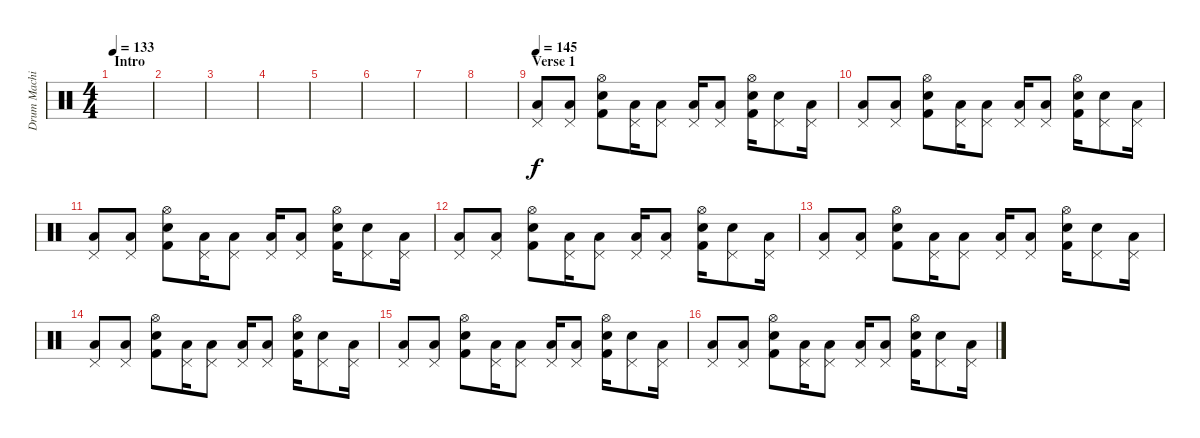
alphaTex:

\track ("Drum Machine" "Drum Machi") {instrument percussion}
\staff {score}
\articulation defaults
\ts (4 4)
\section ("" "Intro")
\tempo 133
\clef neutral
\ks c
|
|
|
|
|
|
|
|
\section ("" "Verse 1")
\tempo 145
("Pedal Hi-Hat (hit)" "Low Tom (hit)").8 ("Pedal Hi-Hat (hit)" "Low Tom (hit)").8 ("Hi-Hat (open)" "Snare (hit) 2" "Kick (hit) 2").8 ("Pedal Hi-Hat (hit)" "Low Tom (hit)").16 ("Pedal Hi-Hat (hit)" "Low Tom (hit)").8 ("Pedal Hi-Hat (hit)" "Low Tom (hit)").16 ("Pedal Hi-Hat (hit)" "Low Tom (hit)").8 ("Hi-Hat (open)" "Snare (hit) 2" "Kick (hit) 2").16 ("Pedal Hi-Hat (hit)" "Snare (hit) 2").8 ("Pedal Hi-Hat (hit)" "Low Tom (hit)").16 |
("Pedal Hi-Hat (hit)" "Low Tom (hit)").8 ("Pedal Hi-Hat (hit)" "Low Tom (hit)").8 ("Hi-Hat (open)" "Snare (hit) 2" "Kick (hit) 2").8 ("Pedal Hi-Hat (hit)" "Low Tom (hit)").16 ("Pedal Hi-Hat (hit)" "Low Tom (hit)").8 ("Pedal Hi-Hat (hit)" "Low Tom (hit)").16 ("Pedal Hi-Hat (hit)" "Low Tom (hit)").8 ("Hi-Hat (open)" "Snare (hit) 2" "Kick (hit) 2").16 ("Pedal Hi-Hat (hit)" "Snare (hit) 2").8 ("Pedal Hi-Hat (hit)" "Low Tom (hit)").16 |
("Pedal Hi-Hat (hit)" "Low Tom (hit)").8 ("Pedal Hi-Hat (hit)" "Low Tom (hit)").8 ("Hi-Hat (open)" "Snare (hit) 2" "Kick (hit) 2").8 ("Pedal Hi-Hat (hit)" "Low Tom (hit)").16 ("Pedal Hi-Hat (hit)" "Low Tom (hit)").8 ("Pedal Hi-Hat (hit)" "Low Tom (hit)").16 ("Pedal Hi-Hat (hit)" "Low Tom (hit)").8 ("Hi-Hat (open)" "Snare (hit) 2" "Kick (hit) 2").16 ("Pedal Hi-Hat (hit)" "Snare (hit) 2").8 ("Pedal Hi-Hat (hit)" "Low Tom (hit)").16 |
("Pedal Hi-Hat (hit)" "Low Tom (hit)").8 ("Pedal Hi-Hat (hit)" "Low Tom (hit)").8 ("Hi-Hat (open)" "Snare (hit) 2" "Kick (hit) 2").8 ("Pedal Hi-Hat (hit)" "Low Tom (hit)").16 ("Pedal Hi-Hat (hit)" "Low Tom (hit)").8 ("Pedal Hi-Hat (hit)" "Low Tom (hit)").16 ("Pedal Hi-Hat (hit)" "Low Tom (hit)").8 ("Hi-Hat (open)" "Snare (hit) 2" "Kick (hit) 2").16 ("Pedal Hi-Hat (hit)" "Snare (hit) 2").8 ("Pedal Hi-Hat (hit)" "Low Tom (hit)").16 |
("Pedal Hi-Hat (hit)" "Low Tom (hit)").8 ("Pedal Hi-Hat (hit)" "Low Tom (hit)").8 ("Hi-Hat (open)" "Snare (hit) 2" "Kick (hit) 2").8 ("Pedal Hi-Hat (hit)" "Low Tom (hit)").16 ("Pedal Hi-Hat (hit)" "Low Tom (hit)").8 ("Pedal Hi-Hat (hit)" "Low Tom (hit)").16 ("Pedal Hi-Hat (hit)" "Low Tom (hit)").8 ("Hi-Hat (open)" "Snare (hit) 2" "Kick (hit) 2").16 ("Pedal Hi-Hat (hit)" "Snare (hit) 2").8 ("Pedal Hi-Hat (hit)" "Low Tom (hit)").16 |
("Pedal Hi-Hat (hit)" "Low Tom (hit)").8 ("Pedal Hi-Hat (hit)" "Low Tom (hit)").8 ("Hi-Hat (open)" "Snare (hit) 2" "Kick (hit) 2").8 ("Pedal Hi-Hat (hit)" "Low Tom (hit)").16 ("Pedal Hi-Hat (hit)" "Low Tom (hit)").8 ("Pedal Hi-Hat (hit)" "Low Tom (hit)").16 ("Pedal Hi-Hat (hit)" "Low Tom (hit)").8 ("Hi-Hat (open)" "Snare (hit) 2" "Kick (hit) 2").16 ("Pedal Hi-Hat (hit)" "Snare (hit) 2").8 ("Pedal Hi-Hat (hit)" "Low Tom (hit)").16 |
("Pedal Hi-Hat (hit)" "Low Tom (hit)").8 ("Pedal Hi-Hat (hit)" "Low Tom (hit)").8 ("Hi-Hat (open)" "Snare (hit) 2" "Kick (hit) 2").8 ("Pedal Hi-Hat (hit)" "Low Tom (hit)").16 ("Pedal Hi-Hat (hit)" "Low Tom (hit)").8 ("Pedal Hi-Hat (hit)" "Low Tom (hit)").16 ("Pedal Hi-Hat (hit)" "Low Tom (hit)").8 ("Hi-Hat (open)" "Snare (hit) 2" "Kick (hit) 2").16 ("Pedal Hi-Hat (hit)" "Snare (hit) 2").8 ("Pedal Hi-Hat (hit)" "Low Tom (hit)").16 |
("Pedal Hi-Hat (hit)" "Low Tom (hit)").8 ("Pedal Hi-Hat (hit)" "Low Tom (hit)").8 ("Hi-Hat (open)" "Snare (hit) 2" "Kick (hit) 2").8 ("Pedal Hi-Hat (hit)" "Low Tom (hit)").16 ("Pedal Hi-Hat (hit)" "Low Tom (hit)").8 ("Pedal Hi-Hat (hit)" "Low Tom (hit)").16 ("Pedal Hi-Hat (hit)" "Low Tom (hit)").8 ("Hi-Hat (open)" "Snare (hit) 2" "Kick (hit) 2").16 ("Pedal Hi-Hat (hit)" "Snare (hit) 2").8 ("Pedal Hi-Hat (hit)" "Low Tom (hit)").16
